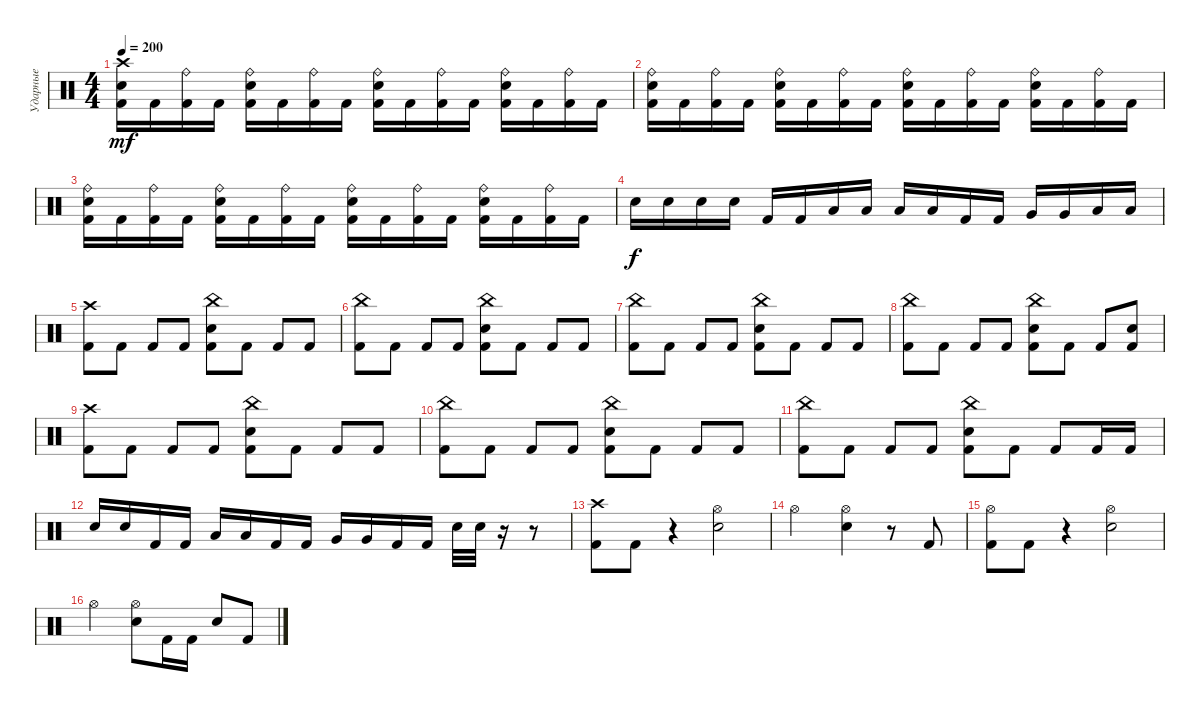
\track ("Ударные" "Ударные") {instrument percussion}
\staff {score}
\articulation defaults
\ts (4 4)
\tempo 200
\clef neutral
\ks c
("Crash high (hit)" "Snare (hit) 2" "Kick (hit) 2").16{dy mf} "Kick (hit) 2".16 ("Ride (bell)" "Kick (hit) 2").16 "Kick (hit) 2".16 ("Ride (bell)" "Snare (hit) 2" "Kick (hit) 2").16 "Kick (hit) 2".16 ("Ride (bell)" "Kick (hit) 2").16 "Kick (hit) 2".16 ("Ride (bell)" "Snare (hit) 2" "Kick (hit) 2").16 "Kick (hit) 2".16 ("Ride (bell)" "Kick (hit) 2").16 "Kick (hit) 2".16 ("Ride (bell)" "Snare (hit) 2" "Kick (hit) 2").16 "Kick (hit) 2".16 ("Ride (bell)" "Kick (hit) 2").16 "Kick (hit) 2".16 |
("Ride (bell)" "Snare (hit) 2" "Kick (hit) 2").16 "Kick (hit) 2".16 ("Ride (bell)" "Kick (hit) 2").16 "Kick (hit) 2".16 ("Ride (bell)" "Snare (hit) 2" "Kick (hit) 2").16 "Kick (hit) 2".16 ("Ride (bell)" "Kick (hit) 2").16 "Kick (hit) 2".16 ("Ride (bell)" "Snare (hit) 2" "Kick (hit) 2").16 "Kick (hit) 2".16 ("Ride (bell)" "Kick (hit) 2").16 "Kick (hit) 2".16 ("Ride (bell)" "Snare (hit) 2" "Kick (hit) 2").16 "Kick (hit) 2".16 ("Ride (bell)" "Kick (hit) 2").16 "Kick (hit) 2".16 |
("Ride (bell)" "Snare (hit) 2" "Kick (hit) 2").16 "Kick (hit) 2".16 ("Ride (bell)" "Kick (hit) 2").16 "Kick (hit) 2".16 ("Ride (bell)" "Snare (hit) 2" "Kick (hit) 2").16 "Kick (hit) 2".16 ("Ride (bell)" "Kick (hit) 2").16 "Kick (hit) 2".16 ("Ride (bell)" "Snare (hit) 2" "Kick (hit) 2").16 "Kick (hit) 2".16 ("Ride (bell)" "Kick (hit) 2").16 "Kick (hit) 2".16 ("Ride (bell)" "Snare (hit) 2" "Kick (hit) 2").16 "Kick (hit) 2".16 ("Ride (bell)" "Kick (hit) 2").16 "Kick (hit) 2".16 |
"Snare (hit) 2".16{dy f} "Snare (hit) 2".16 "Snare (hit) 2".16 "Snare (hit) 2".16 "Kick (hit) 2".16 "Kick (hit) 2".16 "Low Tom (hit)".16 "Low Tom (hit)".16 "Low Tom (hit)".16 "Low Tom (hit)".16 "Kick (hit) 2".16 "Kick (hit) 2".16 "Very Low Tom (hit)".16 "Very Low Tom (hit)".16 "Low Floor Tom (hit)".16 "Low Floor Tom (hit)".16 |
("Crash high (hit)" "Kick (hit) 2").8 "Kick (hit) 2".8 "Kick (hit) 2".8 "Kick (hit) 2".8 ("China (hit)" "Snare (hit) 2" "Kick (hit) 2").8 "Kick (hit) 2".8 "Kick (hit) 2".8 "Kick (hit) 2".8 |
("China (hit)" "Kick (hit) 2").8 "Kick (hit) 2".8 "Kick (hit) 2".8 "Kick (hit) 2".8 ("China (hit)" "Snare (hit) 2" "Kick (hit) 2").8 "Kick (hit) 2".8 "Kick (hit) 2".8 "Kick (hit) 2".8 |
("China (hit)" "Kick (hit) 2").8 "Kick (hit) 2".8 "Kick (hit) 2".8 "Kick (hit) 2".8 ("China (hit)" "Snare (hit) 2" "Kick (hit) 2").8 "Kick (hit) 2".8 "Kick (hit) 2".8 "Kick (hit) 2".8 |
("China (hit)" "Kick (hit) 2").8 "Kick (hit) 2".8 "Kick (hit) 2".8 "Kick (hit) 2".8 ("China (hit)" "Snare (hit) 2" "Kick (hit) 2").8 "Kick (hit) 2".8 "Kick (hit) 2".8 ("Snare (hit) 2" "Kick (hit) 2").8 |
("Crash high (hit)" "Kick (hit) 2").8 "Kick (hit) 2".8 "Kick (hit) 2".8 "Kick (hit) 2".8 ("China (hit)" "Snare (hit) 2" "Kick (hit) 2").8 "Kick (hit) 2".8 "Kick (hit) 2".8 "Kick (hit) 2".8 |
("China (hit)" "Kick (hit) 2").8 "Kick (hit) 2".8 "Kick (hit) 2".8 "Kick (hit) 2".8 ("China (hit)" "Snare (hit) 2" "Kick (hit) 2").8 "Kick (hit) 2".8 "Kick (hit) 2".8 "Kick (hit) 2".8 |
("China (hit)" "Kick (hit) 2").8 "Kick (hit) 2".8 "Kick (hit) 2".8 "Kick (hit) 2".8 ("China (hit)" "Snare (hit) 2" "Kick (hit) 2").8 "Kick (hit) 2".8 "Kick (hit) 2".8 "Kick (hit) 2".16 "Kick (hit) 2".16 |
"Snare (hit) 2".16 "Snare (hit) 2".16 "Kick (hit) 2".16 "Kick (hit) 2".16 "Low Tom (hit)".16 "Low Tom (hit)".16 "Kick (hit) 2".16 "Kick (hit) 2".16 "Very Low Tom (hit)".16 "Very Low Tom (hit)".16 "Kick (hit) 2".16 "Kick (hit) 2".16 "Snare (hit) 2".32 "Snare (hit) 2".32 r.16 r.8 |
("Crash high (hit)" "Kick (hit) 2").8 "Kick (hit) 2".8 r.4 ("Hi-Hat (open)" "Snare (hit) 2").2 |
"Hi-Hat (open)".2 ("Hi-Hat (open)" "Snare (hit) 2").4 r.8 "Kick (hit) 2".8 |
("Hi-Hat (open)" "Kick (hit) 2").8 "Kick (hit) 2".8 r.4 ("Hi-Hat (open)" "Snare (hit) 2").2 |
"Hi-Hat (open)".2 ("Hi-Hat (open)" "Snare (hit) 2").8 "Kick (hit) 2".16 "Kick (hit) 2".16 "Snare (hit) 2".8 "Kick (hit) 2".8
